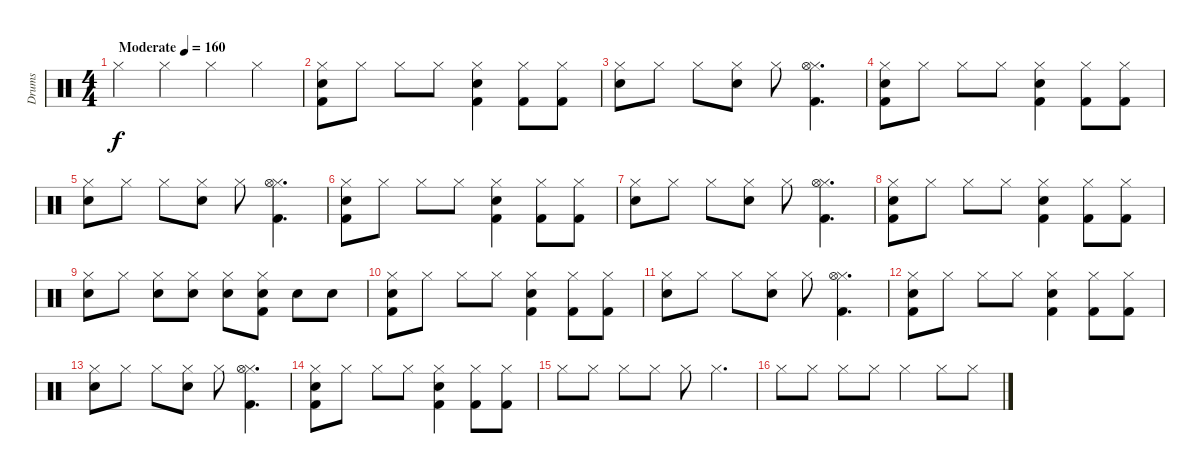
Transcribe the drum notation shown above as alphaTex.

\track ("Drums" "Drums") {instrument percussion}
\staff {score}
\articulation defaults
\ts (4 4)
\tempo (160 "Moderate")
\clef neutral
\ks c "Hi-Hat (closed)".4{dy f} "Hi-Hat (closed)".4 "Hi-Hat (closed)".4 "Hi-Hat (closed)".4
|
("Kick (hit) 2" "Hi-Hat (closed)" "Snare (hit) 2").8 "Hi-Hat (closed)".8 "Hi-Hat (closed)".8 "Hi-Hat (closed)".8 ("Kick (hit) 2" "Hi-Hat (closed)" "Snare (hit) 2").4 ("Kick (hit) 2" "Hi-Hat (closed)").8 ("Kick (hit) 2" "Hi-Hat (closed)").8 |
("Hi-Hat (closed)" "Snare (hit) 2").8 "Hi-Hat (closed)".8 "Hi-Hat (closed)".8 ("Hi-Hat (closed)" "Snare (hit) 2").8 "Hi-Hat (closed)".8 ("Kick (hit) 2" "Hi-Hat (closed)" "Hi-Hat (open)").4{d} |
("Kick (hit) 2" "Hi-Hat (closed)" "Snare (hit) 2").8 "Hi-Hat (closed)".8 "Hi-Hat (closed)".8 "Hi-Hat (closed)".8 ("Kick (hit) 2" "Hi-Hat (closed)" "Snare (hit) 2").4 ("Kick (hit) 2" "Hi-Hat (closed)").8 ("Kick (hit) 2" "Hi-Hat (closed)").8 |
("Hi-Hat (closed)" "Snare (hit) 2").8 "Hi-Hat (closed)".8 "Hi-Hat (closed)".8 ("Hi-Hat (closed)" "Snare (hit) 2").8 "Hi-Hat (closed)".8 ("Kick (hit) 2" "Hi-Hat (closed)" "Hi-Hat (open)").4{d} |
("Kick (hit) 2" "Hi-Hat (closed)" "Snare (hit) 2").8 "Hi-Hat (closed)".8 "Hi-Hat (closed)".8 "Hi-Hat (closed)".8 ("Kick (hit) 2" "Hi-Hat (closed)" "Snare (hit) 2").4 ("Kick (hit) 2" "Hi-Hat (closed)").8 ("Kick (hit) 2" "Hi-Hat (closed)").8 |
("Hi-Hat (closed)" "Snare (hit) 2").8 "Hi-Hat (closed)".8 "Hi-Hat (closed)".8 ("Hi-Hat (closed)" "Snare (hit) 2").8 "Hi-Hat (closed)".8 ("Kick (hit) 2" "Hi-Hat (closed)" "Hi-Hat (open)").4{d} |
("Kick (hit) 2" "Hi-Hat (closed)" "Snare (hit) 2").8 "Hi-Hat (closed)".8 "Hi-Hat (closed)".8 "Hi-Hat (closed)".8 ("Kick (hit) 2" "Hi-Hat (closed)" "Snare (hit) 2").4 ("Kick (hit) 2" "Hi-Hat (closed)").8 ("Kick (hit) 2" "Hi-Hat (closed)").8 |
("Hi-Hat (closed)" "Snare (hit) 2").8 "Hi-Hat (closed)".8 ("Hi-Hat (closed)" "Snare (hit) 2").8 ("Hi-Hat (closed)" "Snare (hit) 2").8 ("Hi-Hat (closed)" "Snare (hit) 2").8 ("Kick (hit) 2" "Hi-Hat (closed)" "Snare (hit) 2").8 "Snare (hit) 2".8 "Snare (hit) 2".8 |
("Kick (hit) 2" "Hi-Hat (closed)" "Snare (hit) 2").8 "Hi-Hat (closed)".8 "Hi-Hat (closed)".8 "Hi-Hat (closed)".8 ("Kick (hit) 2" "Hi-Hat (closed)" "Snare (hit) 2").4 ("Kick (hit) 2" "Hi-Hat (closed)").8 ("Kick (hit) 2" "Hi-Hat (closed)").8 |
("Hi-Hat (closed)" "Snare (hit) 2").8 "Hi-Hat (closed)".8 "Hi-Hat (closed)".8 ("Hi-Hat (closed)" "Snare (hit) 2").8 "Hi-Hat (closed)".8 ("Kick (hit) 2" "Hi-Hat (closed)" "Hi-Hat (open)").4{d} |
("Kick (hit) 2" "Hi-Hat (closed)" "Snare (hit) 2").8 "Hi-Hat (closed)".8 "Hi-Hat (closed)".8 "Hi-Hat (closed)".8 ("Kick (hit) 2" "Hi-Hat (closed)" "Snare (hit) 2").4 ("Kick (hit) 2" "Hi-Hat (closed)").8 ("Kick (hit) 2" "Hi-Hat (closed)").8 |
("Hi-Hat (closed)" "Snare (hit) 2").8 "Hi-Hat (closed)".8 "Hi-Hat (closed)".8 ("Hi-Hat (closed)" "Snare (hit) 2").8 "Hi-Hat (closed)".8 ("Kick (hit) 2" "Hi-Hat (closed)" "Hi-Hat (open)").4{d} |
("Kick (hit) 2" "Hi-Hat (closed)" "Snare (hit) 2").8 "Hi-Hat (closed)".8 "Hi-Hat (closed)".8 "Hi-Hat (closed)".8 ("Kick (hit) 2" "Hi-Hat (closed)" "Snare (hit) 2").4 ("Kick (hit) 2" "Hi-Hat (closed)").8 ("Kick (hit) 2" "Hi-Hat (closed)").8 |
"Hi-Hat (closed)".8 "Hi-Hat (closed)".8 "Hi-Hat (closed)".8 "Hi-Hat (closed)".8 "Hi-Hat (closed)".8 "Hi-Hat (closed)".4{d} |
"Hi-Hat (closed)".8 "Hi-Hat (closed)".8 "Hi-Hat (closed)".8 "Hi-Hat (closed)".8 "Hi-Hat (closed)".4 "Hi-Hat (closed)".8 "Hi-Hat (closed)".8
